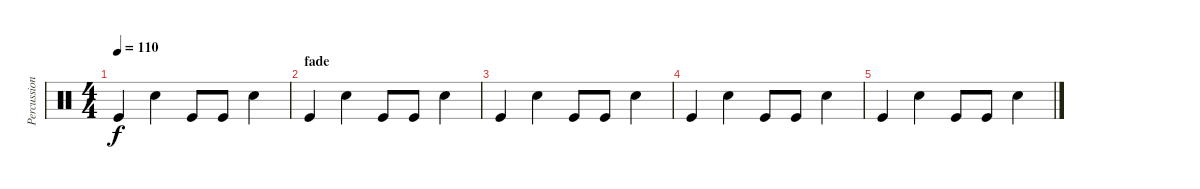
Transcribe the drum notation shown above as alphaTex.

\track ("Percussion" "Percussion") {instrument percussion}
\staff {score}
\articulation defaults
\ts (4 4)
\tempo 110
\clef neutral
\ks c "Kick (hit)".4{dy f} "Snare (hit) 2".4 "Kick (hit)".8 "Kick (hit)".8 "Snare (hit) 2".4
|
\section ("" "fade")
"Kick (hit)".4{volume 9} "Snare (hit) 2".4 "Kick (hit)".8 "Kick (hit)".8 "Snare (hit) 2".4 |
"Kick (hit)".4{volume 6} "Snare (hit) 2".4 "Kick (hit)".8 "Kick (hit)".8 "Snare (hit) 2".4 |
"Kick (hit)".4{volume 3} "Snare (hit) 2".4 "Kick (hit)".8 "Kick (hit)".8 "Snare (hit) 2".4 |
"Kick (hit)".4 "Snare (hit) 2".4 "Kick (hit)".8 "Kick (hit)".8 "Snare (hit) 2".4
